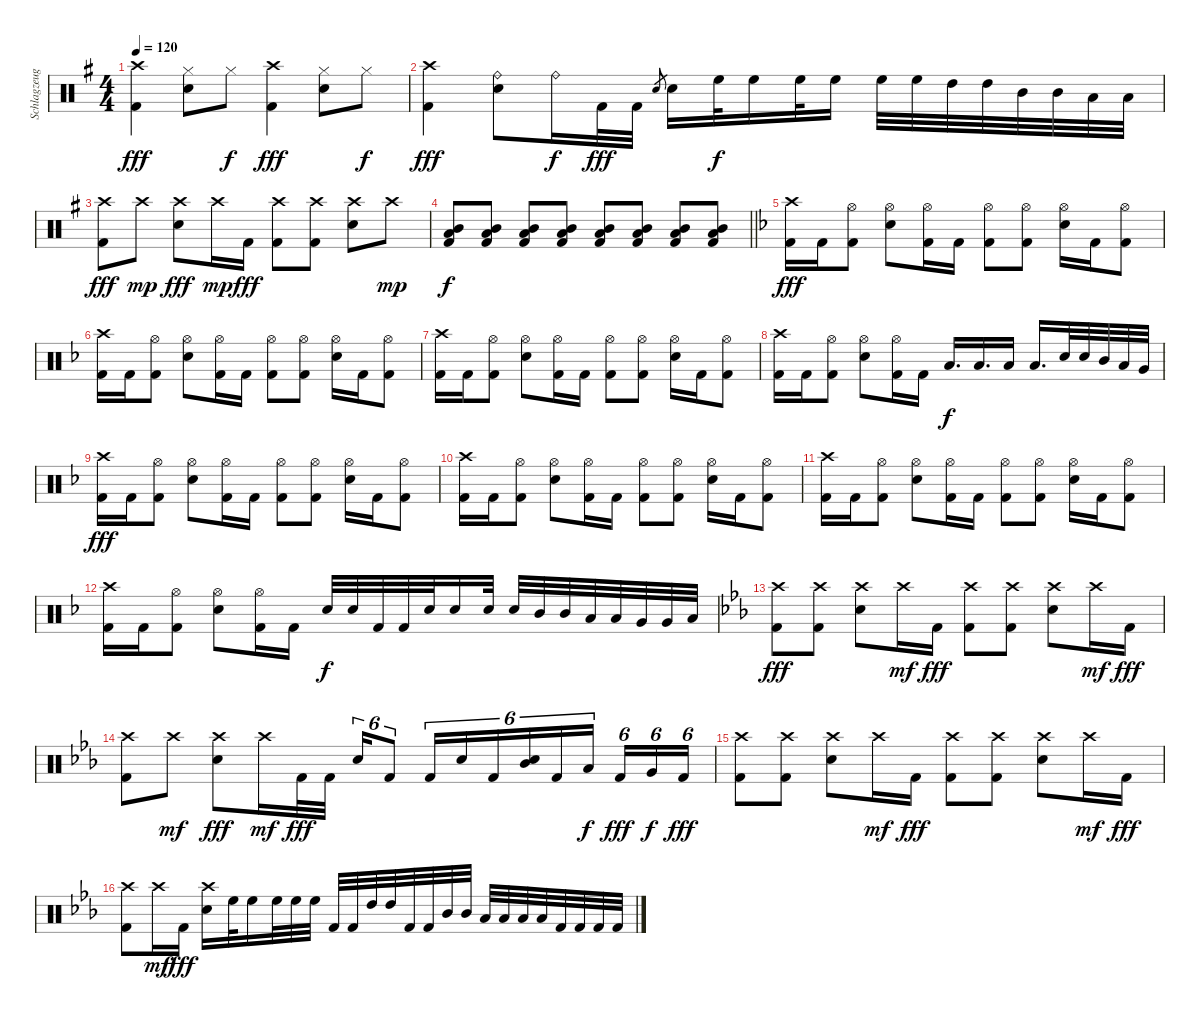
\track ("Schlagzeug" "Schlagzeug") {instrument percussion}
\staff {score}
\articulation defaults
\ts (4 4)
\tempo 120
\clef neutral
\ks eminor
("Crash high (hit)" "Kick (hit) 2").4{dy fff} ("Hi-Hat (closed)" "Snare (hit) 2").8 "Hi-Hat (closed)".8{dy f} ("Crash high (hit)" "Kick (hit) 2").4{dy fff} ("Hi-Hat (closed)" "Snare (hit) 2").8 "Hi-Hat (closed)".8{dy f} |
("Crash high (hit)" "Kick (hit) 2").4{dy fff} ("Ride (bell)" "Snare (hit) 2").8 "Ride (bell)".16{dy f} "Kick (hit) 2".32{dy fff} "Kick (hit) 2".32 "Snare (hit) 2".8{gr} "Snare (hit) 2".16 "High Floor Tom (hit)".32{dy f} "High Floor Tom (hit)".16 "High Floor Tom (hit)".32 "High Floor Tom (hit)".16 "High Floor Tom (hit)".32 "High Floor Tom (hit)".32 "High Tom (hit)".32 "High Tom (hit)".32 "Mid Tom (hit)".32 "Mid Tom (hit)".32 "Low Tom (hit)".32 "Low Tom (hit)".32 |
("Crash high (hit)" "Kick (hit) 2").8{dy fff} "Crash high (hit)".8{dy mp} ("Crash high (hit)" "Snare (hit) 2").8{dy fff} "Crash high (hit)".16{dy mp} "Kick (hit) 2".16{dy fff} ("Crash high (hit)" "Kick (hit) 2").8 ("Crash high (hit)" "Kick (hit) 2").8 ("Crash high (hit)" "Snare (hit) 2").8 "Crash high (hit)".8{dy mp} |
\barLineRight lightlight
("Mid Tom (hit)" "Low Tom (hit)" "Kick (hit) 2").8{dy f} ("Mid Tom (hit)" "Low Tom (hit)" "Kick (hit) 2").8 ("Mid Tom (hit)" "Low Tom (hit)" "Kick (hit) 2").8 ("Mid Tom (hit)" "Low Tom (hit)" "Kick (hit) 2").8 ("Mid Tom (hit)" "Low Tom (hit)" "Kick (hit) 2").8 ("Mid Tom (hit)" "Low Tom (hit)" "Kick (hit) 2").8 ("Mid Tom (hit)" "Low Tom (hit)" "Kick (hit) 2").8 ("Mid Tom (hit)" "Low Tom (hit)" "Kick (hit) 2").8 |
\ks dminor
("Crash high (hit)" "Kick (hit) 2").16{dy fff} "Kick (hit) 2".16 ("Hi-Hat (open)" "Kick (hit) 2").8 ("Hi-Hat (open)" "Snare (hit) 2").8 ("Hi-Hat (open)" "Kick (hit) 2").16 "Kick (hit) 2".16 ("Hi-Hat (open)" "Kick (hit) 2").8 ("Hi-Hat (open)" "Kick (hit) 2").8 ("Hi-Hat (open)" "Snare (hit) 2").16 "Kick (hit) 2".16 ("Hi-Hat (open)" "Kick (hit) 2").8 |
("Crash high (hit)" "Kick (hit) 2").16 "Kick (hit) 2".16 ("Hi-Hat (open)" "Kick (hit) 2").8 ("Hi-Hat (open)" "Snare (hit) 2").8 ("Hi-Hat (open)" "Kick (hit) 2").16 "Kick (hit) 2".16 ("Hi-Hat (open)" "Kick (hit) 2").8 ("Hi-Hat (open)" "Kick (hit) 2").8 ("Hi-Hat (open)" "Snare (hit) 2").16 "Kick (hit) 2".16 ("Hi-Hat (open)" "Kick (hit) 2").8 |
("Crash high (hit)" "Kick (hit) 2").16 "Kick (hit) 2".16 ("Hi-Hat (open)" "Kick (hit) 2").8 ("Hi-Hat (open)" "Snare (hit) 2").8 ("Hi-Hat (open)" "Kick (hit) 2").16 "Kick (hit) 2".16 ("Hi-Hat (open)" "Kick (hit) 2").8 ("Hi-Hat (open)" "Kick (hit) 2").8 ("Hi-Hat (open)" "Snare (hit) 2").16 "Kick (hit) 2".16 ("Hi-Hat (open)" "Kick (hit) 2").8 |
("Crash high (hit)" "Kick (hit) 2").16 "Kick (hit) 2".16 ("Hi-Hat (open)" "Kick (hit) 2").8 ("Hi-Hat (open)" "Snare (hit) 2").8 ("Hi-Hat (open)" "Kick (hit) 2").16 "Kick (hit) 2".16 "Low Tom (hit)".16{d dy f} "Low Tom (hit)".16{d} "Low Tom (hit)".16 "Low Tom (hit)".16{d} "Snare (hit) 2".32 "Snare (hit) 2".32 "Mid Tom (hit)".32 "Low Tom (hit)".32 "Very Low Tom (hit)".32 |
("Crash high (hit)" "Kick (hit) 2").16{dy fff} "Kick (hit) 2".16 ("Hi-Hat (open)" "Kick (hit) 2").8 ("Hi-Hat (open)" "Snare (hit) 2").8 ("Hi-Hat (open)" "Kick (hit) 2").16 "Kick (hit) 2".16 ("Hi-Hat (open)" "Kick (hit) 2").8 ("Hi-Hat (open)" "Kick (hit) 2").8 ("Hi-Hat (open)" "Snare (hit) 2").16 "Kick (hit) 2".16 ("Hi-Hat (open)" "Kick (hit) 2").8 |
("Crash high (hit)" "Kick (hit) 2").16 "Kick (hit) 2".16 ("Hi-Hat (open)" "Kick (hit) 2").8 ("Hi-Hat (open)" "Snare (hit) 2").8 ("Hi-Hat (open)" "Kick (hit) 2").16 "Kick (hit) 2".16 ("Hi-Hat (open)" "Kick (hit) 2").8 ("Hi-Hat (open)" "Kick (hit) 2").8 ("Hi-Hat (open)" "Snare (hit) 2").16 "Kick (hit) 2".16 ("Hi-Hat (open)" "Kick (hit) 2").8 |
("Crash high (hit)" "Kick (hit) 2").16 "Kick (hit) 2".16 ("Hi-Hat (open)" "Kick (hit) 2").8 ("Hi-Hat (open)" "Snare (hit) 2").8 ("Hi-Hat (open)" "Kick (hit) 2").16 "Kick (hit) 2".16 ("Hi-Hat (open)" "Kick (hit) 2").8 ("Hi-Hat (open)" "Kick (hit) 2").8 ("Hi-Hat (open)" "Snare (hit) 2").16 "Kick (hit) 2".16 ("Hi-Hat (open)" "Kick (hit) 2").8 |
("Crash high (hit)" "Kick (hit) 2").16 "Kick (hit) 2".16 ("Hi-Hat (open)" "Kick (hit) 2").8 ("Hi-Hat (open)" "Snare (hit) 2").8 ("Hi-Hat (open)" "Kick (hit) 2").16 "Kick (hit) 2".16 "Snare (hit) 2".32{dy f} "Snare (hit) 2".32 "Kick (hit) 2".32 "Kick (hit) 2".32 "Snare (hit) 2".32 "Snare (hit) 2".16 "Snare (hit) 2".32 "Snare (hit) 2".32 "Mid Tom (hit)".32 "Mid Tom (hit)".32 "Low Tom (hit)".32 "Low Tom (hit)".32 "Very Low Tom (hit)".32 "Very Low Tom (hit)".32 "Low Floor Tom (hit)".32 |
\ks cminor
("Crash high (hit)" "Kick (hit) 2").8{dy fff} ("Crash high (hit)" "Kick (hit) 2").8 ("Crash high (hit)" "Snare (hit) 2").8 "Crash high (hit)".16{dy mf} "Kick (hit) 2".16{dy fff} ("Crash high (hit)" "Kick (hit) 2").8 ("Crash high (hit)" "Kick (hit) 2").8 ("Crash high (hit)" "Snare (hit) 2").8 "Crash high (hit)".16{dy mf} "Kick (hit) 2".16{dy fff} |
("Crash high (hit)" "Kick (hit) 2").8 "Crash high (hit)".8{dy mf} ("Crash high (hit)" "Snare (hit) 2").8{dy fff} "Crash high (hit)".16{dy mf} "Kick (hit) 2".32{dy fff} "Kick (hit) 2".32 "Snare (hit) 2".16{tu (6 4)} "Kick (hit) 2".8{tu (6 4)} "Kick (hit) 2".16{tu (6 4)} "Snare (hit) 2".16{tu (6 4)} "Kick (hit) 2".16{tu (6 4)} ("Mid Tom (hit)" "Snare (hit) 2").16{tu (6 4)} "Kick (hit) 2".16{tu (6 4)} "Low Tom (hit)".16{tu (6 4) dy f} "Kick (hit) 2".16{tu (6 4) dy fff} "Very Low Tom (hit)".16{tu (6 4) dy f} "Kick (hit) 2".16{tu (6 4) dy fff} |
("Crash high (hit)" "Kick (hit) 2").8 ("Crash high (hit)" "Kick (hit) 2").8 ("Crash high (hit)" "Snare (hit) 2").8 "Crash high (hit)".16{dy mf} "Kick (hit) 2".16{dy fff} ("Crash high (hit)" "Kick (hit) 2").8 ("Crash high (hit)" "Kick (hit) 2").8 ("Crash high (hit)" "Snare (hit) 2").8 "Crash high (hit)".16{dy mf} "Kick (hit) 2".16{dy fff} |
("Crash high (hit)" "Kick (hit) 2").8 "Crash high (hit)".16{dy mf} "Kick (hit) 2".16{dy fff} ("Crash high (hit)" "Snare (hit) 2").16 "High Floor Tom (hit)".32 "High Floor Tom (hit)".16 "High Floor Tom (hit)".32 "High Floor Tom (hit)".32 "High Floor Tom (hit)".32 "Kick (hit) 2".32 "Kick (hit) 2".32 "High Tom (hit)".32 "High Tom (hit)".32 "Kick (hit) 2".32 "Kick (hit) 2".32 "Mid Tom (hit)".32 "Mid Tom (hit)".32 "Low Tom (hit)".32 "Low Tom (hit)".32 "Low Tom (hit)".32 "Low Tom (hit)".32 "Kick (hit) 2".32 "Kick (hit) 2".32 "Kick (hit) 2".32 "Kick (hit) 2".32
